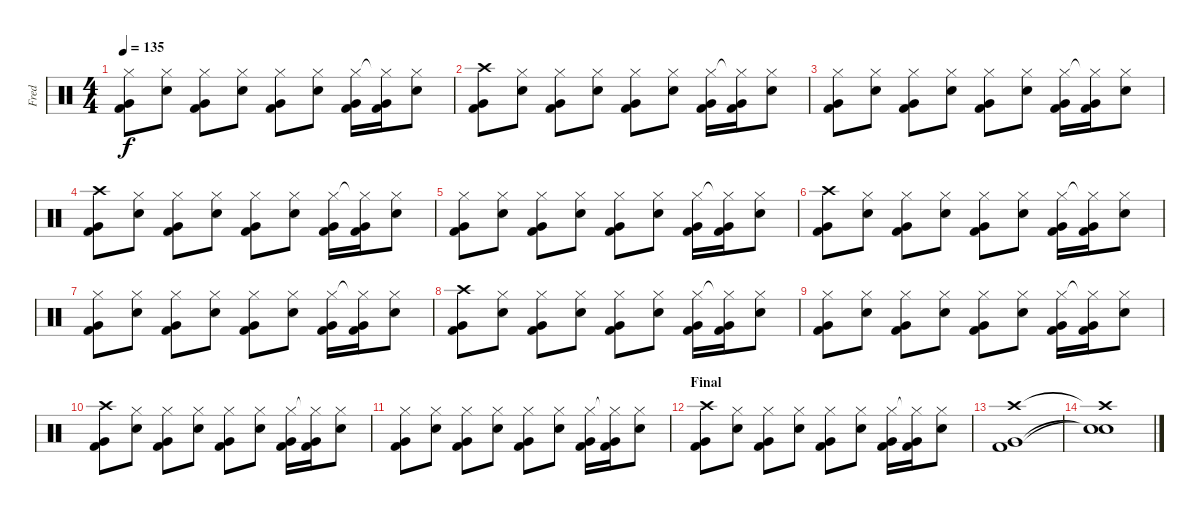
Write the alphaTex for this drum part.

\track ("Fred" "Fred") {instrument percussion}
\staff {score}
\articulation defaults
\ts (4 4)
\tempo 135
\clef neutral
\ks c
("Very Low Tom (hit)" "Kick (hit) 2" "Hi-Hat (closed)").8{dy f} ("Snare (hit) 2" "Hi-Hat (closed)").8 ("Very Low Tom (hit)" "Kick (hit) 2" "Hi-Hat (closed)").8 ("Snare (hit) 2" "Hi-Hat (closed)").8 ("Very Low Tom (hit)" "Kick (hit) 2" "Hi-Hat (closed)").8 ("Snare (hit) 2" "Hi-Hat (closed)").8 ("Very Low Tom (hit)" "Kick (hit) 2" "Hi-Hat (closed)").16 ("Very Low Tom (hit)" "Kick (hit) 2" "Hi-Hat (closed)"{t}).16 ("Snare (hit) 2" "Hi-Hat (closed)").8 |
("Very Low Tom (hit)" "Kick (hit) 2" "Crash high (hit)").8 ("Snare (hit) 2" "Hi-Hat (closed)").8 ("Very Low Tom (hit)" "Kick (hit) 2" "Hi-Hat (closed)").8 ("Snare (hit) 2" "Hi-Hat (closed)").8 ("Very Low Tom (hit)" "Kick (hit) 2" "Hi-Hat (closed)").8 ("Snare (hit) 2" "Hi-Hat (closed)").8 ("Very Low Tom (hit)" "Kick (hit) 2" "Hi-Hat (closed)").16 ("Very Low Tom (hit)" "Kick (hit) 2" "Hi-Hat (closed)"{t}).16 ("Snare (hit) 2" "Hi-Hat (closed)").8 |
("Very Low Tom (hit)" "Kick (hit) 2" "Hi-Hat (closed)").8 ("Snare (hit) 2" "Hi-Hat (closed)").8 ("Very Low Tom (hit)" "Kick (hit) 2" "Hi-Hat (closed)").8 ("Snare (hit) 2" "Hi-Hat (closed)").8 ("Very Low Tom (hit)" "Kick (hit) 2" "Hi-Hat (closed)").8 ("Snare (hit) 2" "Hi-Hat (closed)").8 ("Very Low Tom (hit)" "Kick (hit) 2" "Hi-Hat (closed)").16 ("Very Low Tom (hit)" "Kick (hit) 2" "Hi-Hat (closed)"{t}).16 ("Snare (hit) 2" "Hi-Hat (closed)").8 |
("Very Low Tom (hit)" "Kick (hit) 2" "Crash high (hit)").8 ("Snare (hit) 2" "Hi-Hat (closed)").8 ("Very Low Tom (hit)" "Kick (hit) 2" "Hi-Hat (closed)").8 ("Snare (hit) 2" "Hi-Hat (closed)").8 ("Very Low Tom (hit)" "Kick (hit) 2" "Hi-Hat (closed)").8 ("Snare (hit) 2" "Hi-Hat (closed)").8 ("Very Low Tom (hit)" "Kick (hit) 2" "Hi-Hat (closed)").16 ("Very Low Tom (hit)" "Kick (hit) 2" "Hi-Hat (closed)"{t}).16 ("Snare (hit) 2" "Hi-Hat (closed)").8 |
("Very Low Tom (hit)" "Kick (hit) 2" "Hi-Hat (closed)").8 ("Snare (hit) 2" "Hi-Hat (closed)").8 ("Very Low Tom (hit)" "Kick (hit) 2" "Hi-Hat (closed)").8 ("Snare (hit) 2" "Hi-Hat (closed)").8 ("Very Low Tom (hit)" "Kick (hit) 2" "Hi-Hat (closed)").8 ("Snare (hit) 2" "Hi-Hat (closed)").8 ("Very Low Tom (hit)" "Kick (hit) 2" "Hi-Hat (closed)").16 ("Very Low Tom (hit)" "Kick (hit) 2" "Hi-Hat (closed)"{t}).16 ("Snare (hit) 2" "Hi-Hat (closed)").8 |
("Very Low Tom (hit)" "Kick (hit) 2" "Crash high (hit)").8 ("Snare (hit) 2" "Hi-Hat (closed)").8 ("Very Low Tom (hit)" "Kick (hit) 2" "Hi-Hat (closed)").8 ("Snare (hit) 2" "Hi-Hat (closed)").8 ("Very Low Tom (hit)" "Kick (hit) 2" "Hi-Hat (closed)").8 ("Snare (hit) 2" "Hi-Hat (closed)").8 ("Very Low Tom (hit)" "Kick (hit) 2" "Hi-Hat (closed)").16 ("Very Low Tom (hit)" "Kick (hit) 2" "Hi-Hat (closed)"{t}).16 ("Snare (hit) 2" "Hi-Hat (closed)").8 |
("Very Low Tom (hit)" "Kick (hit) 2" "Hi-Hat (closed)").8 ("Snare (hit) 2" "Hi-Hat (closed)").8 ("Very Low Tom (hit)" "Kick (hit) 2" "Hi-Hat (closed)").8 ("Snare (hit) 2" "Hi-Hat (closed)").8 ("Very Low Tom (hit)" "Kick (hit) 2" "Hi-Hat (closed)").8 ("Snare (hit) 2" "Hi-Hat (closed)").8 ("Very Low Tom (hit)" "Kick (hit) 2" "Hi-Hat (closed)").16 ("Very Low Tom (hit)" "Kick (hit) 2" "Hi-Hat (closed)"{t}).16 ("Snare (hit) 2" "Hi-Hat (closed)").8 |
("Very Low Tom (hit)" "Kick (hit) 2" "Crash high (hit)").8 ("Snare (hit) 2" "Hi-Hat (closed)").8 ("Very Low Tom (hit)" "Kick (hit) 2" "Hi-Hat (closed)").8 ("Snare (hit) 2" "Hi-Hat (closed)").8 ("Very Low Tom (hit)" "Kick (hit) 2" "Hi-Hat (closed)").8 ("Snare (hit) 2" "Hi-Hat (closed)").8 ("Very Low Tom (hit)" "Kick (hit) 2" "Hi-Hat (closed)").16 ("Very Low Tom (hit)" "Kick (hit) 2" "Hi-Hat (closed)"{t}).16 ("Snare (hit) 2" "Hi-Hat (closed)").8 |
("Very Low Tom (hit)" "Kick (hit) 2" "Hi-Hat (closed)").8 ("Snare (hit) 2" "Hi-Hat (closed)").8 ("Very Low Tom (hit)" "Kick (hit) 2" "Hi-Hat (closed)").8 ("Snare (hit) 2" "Hi-Hat (closed)").8 ("Very Low Tom (hit)" "Kick (hit) 2" "Hi-Hat (closed)").8 ("Snare (hit) 2" "Hi-Hat (closed)").8 ("Very Low Tom (hit)" "Kick (hit) 2" "Hi-Hat (closed)").16 ("Very Low Tom (hit)" "Kick (hit) 2" "Hi-Hat (closed)"{t}).16 ("Snare (hit) 2" "Hi-Hat (closed)").8 |
("Very Low Tom (hit)" "Kick (hit) 2" "Crash high (hit)").8 ("Snare (hit) 2" "Hi-Hat (closed)").8 ("Very Low Tom (hit)" "Kick (hit) 2" "Hi-Hat (closed)").8 ("Snare (hit) 2" "Hi-Hat (closed)").8 ("Very Low Tom (hit)" "Kick (hit) 2" "Hi-Hat (closed)").8 ("Snare (hit) 2" "Hi-Hat (closed)").8 ("Very Low Tom (hit)" "Kick (hit) 2" "Hi-Hat (closed)").16 ("Very Low Tom (hit)" "Kick (hit) 2" "Hi-Hat (closed)"{t}).16 ("Snare (hit) 2" "Hi-Hat (closed)").8 |
("Very Low Tom (hit)" "Kick (hit) 2" "Hi-Hat (closed)").8 ("Snare (hit) 2" "Hi-Hat (closed)").8 ("Very Low Tom (hit)" "Kick (hit) 2" "Hi-Hat (closed)").8 ("Snare (hit) 2" "Hi-Hat (closed)").8 ("Very Low Tom (hit)" "Kick (hit) 2" "Hi-Hat (closed)").8 ("Snare (hit) 2" "Hi-Hat (closed)").8 ("Very Low Tom (hit)" "Kick (hit) 2" "Hi-Hat (closed)").16 ("Very Low Tom (hit)" "Kick (hit) 2" "Hi-Hat (closed)"{t}).16 ("Snare (hit) 2" "Hi-Hat (closed)").8 |
\section ("" "Final")
("Very Low Tom (hit)" "Kick (hit) 2" "Crash high (hit)").8 ("Snare (hit) 2" "Hi-Hat (closed)").8 ("Very Low Tom (hit)" "Kick (hit) 2" "Hi-Hat (closed)").8 ("Snare (hit) 2" "Hi-Hat (closed)").8 ("Very Low Tom (hit)" "Kick (hit) 2" "Hi-Hat (closed)").8 ("Snare (hit) 2" "Hi-Hat (closed)").8 ("Very Low Tom (hit)" "Kick (hit) 2" "Hi-Hat (closed)").16 ("Very Low Tom (hit)" "Kick (hit) 2" "Hi-Hat (closed)"{t}).16 ("Snare (hit) 2" "Hi-Hat (closed)").8 |
("Very Low Tom (hit)" "Kick (hit) 2" "Crash high (hit)").1 |
("Snare (hit)"{t} "Snare (hit)"{t} "Crash high (hit)"{t}).1
